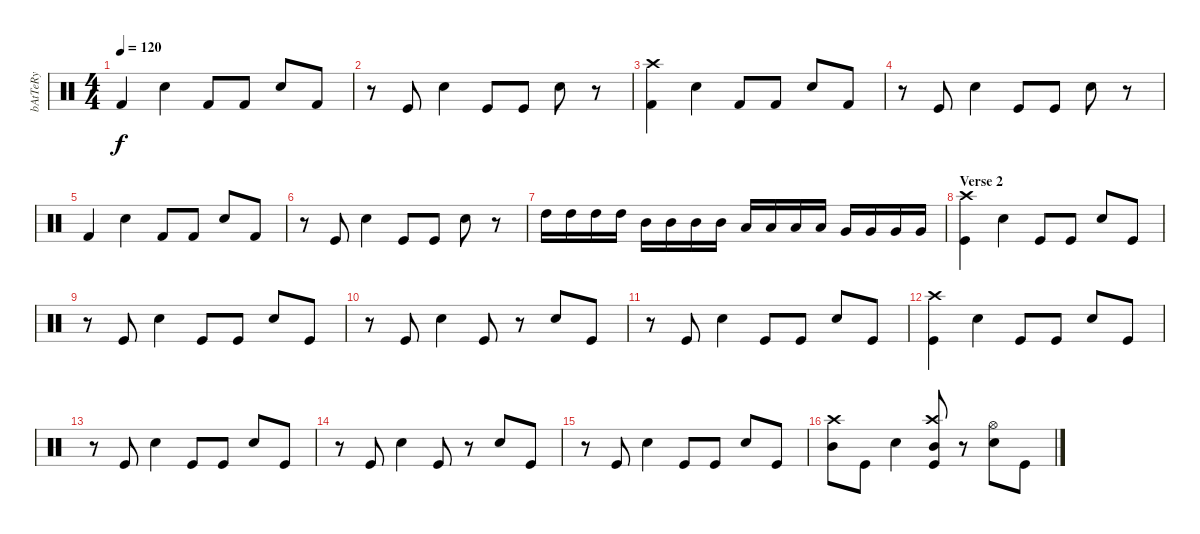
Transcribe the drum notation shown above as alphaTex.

\track ("bAtTeRy" "bAtTeRy") {instrument percussion}
\staff {score}
\articulation defaults
\ts (4 4)
\tempo 120
\clef neutral
\ks c "Kick (hit) 2".4{dy f} "Electric Snare (hit)".4 "Kick (hit) 2".8 "Kick (hit) 2".8 "Electric Snare (hit)".8 "Kick (hit) 2".8
|
r.8 "Kick (hit)".8 "Electric Snare (hit)".4 "Kick (hit)".8 "Kick (hit)".8 "Electric Snare (hit)".8 r.8 |
("Crash high (hit)" "Kick (hit) 2").4 "Electric Snare (hit)".4 "Kick (hit) 2".8 "Kick (hit) 2".8 "Electric Snare (hit)".8 "Kick (hit) 2".8 |
r.8 "Kick (hit)".8 "Electric Snare (hit)".4 "Kick (hit)".8 "Kick (hit)".8 "Electric Snare (hit)".8 r.8 |
"Kick (hit) 2".4 "Electric Snare (hit)".4 "Kick (hit) 2".8 "Kick (hit) 2".8 "Electric Snare (hit)".8 "Kick (hit) 2".8 |
r.8 "Kick (hit)".8 "Electric Snare (hit)".4 "Kick (hit)".8 "Kick (hit)".8 "Electric Snare (hit)".8 r.8 |
"High Tom (hit)".16 "High Tom (hit)".16 "High Tom (hit)".16 "High Tom (hit)".16 "Mid Tom (hit)".16 "Mid Tom (hit)".16 "Mid Tom (hit)".16 "Mid Tom (hit)".16 "Low Tom (hit)".16 "Low Tom (hit)".16 "Low Tom (hit)".16 "Low Tom (hit)".16 "Very Low Tom (hit)".16 "Very Low Tom (hit)".16 "Very Low Tom (hit)".16 "Very Low Tom (hit)".16 |
\section ("" "Verse 2")
("Crash high (hit)" "Kick (hit)").4 "Electric Snare (hit)".4 "Kick (hit)".8 "Kick (hit)".8 "Electric Snare (hit)".8 "Kick (hit)".8 |
r.8 "Kick (hit)".8 "Electric Snare (hit)".4 "Kick (hit)".8 "Kick (hit)".8 "Electric Snare (hit)".8 "Kick (hit)".8 |
r.8 "Kick (hit)".8 "Electric Snare (hit)".4 "Kick (hit)".8 r.8 "Electric Snare (hit)".8 "Kick (hit)".8 |
r.8 "Kick (hit)".8 "Electric Snare (hit)".4 "Kick (hit)".8 "Kick (hit)".8 "Electric Snare (hit)".8 "Kick (hit)".8 |
("Crash high (hit)" "Kick (hit)").4 "Electric Snare (hit)".4 "Kick (hit)".8 "Kick (hit)".8 "Electric Snare (hit)".8 "Kick (hit)".8 |
r.8 "Kick (hit)".8 "Electric Snare (hit)".4 "Kick (hit)".8 "Kick (hit)".8 "Electric Snare (hit)".8 "Kick (hit)".8 |
r.8 "Kick (hit)".8 "Electric Snare (hit)".4 "Kick (hit)".8 r.8 "Electric Snare (hit)".8 "Kick (hit)".8 |
r.8 "Kick (hit)".8 "Electric Snare (hit)".4 "Kick (hit)".8 "Kick (hit)".8 "Electric Snare (hit)".8 "Kick (hit)".8 |
("Crash high (hit)" "Mid Tom (hit)").8 "Kick (hit)".8 "Electric Snare (hit)".4 ("Crash high (hit)" "Mid Tom (hit)" "Kick (hit)").8 r.8 ("Hi-Hat (open)" "Electric Snare (hit)").8 "Kick (hit)".8
